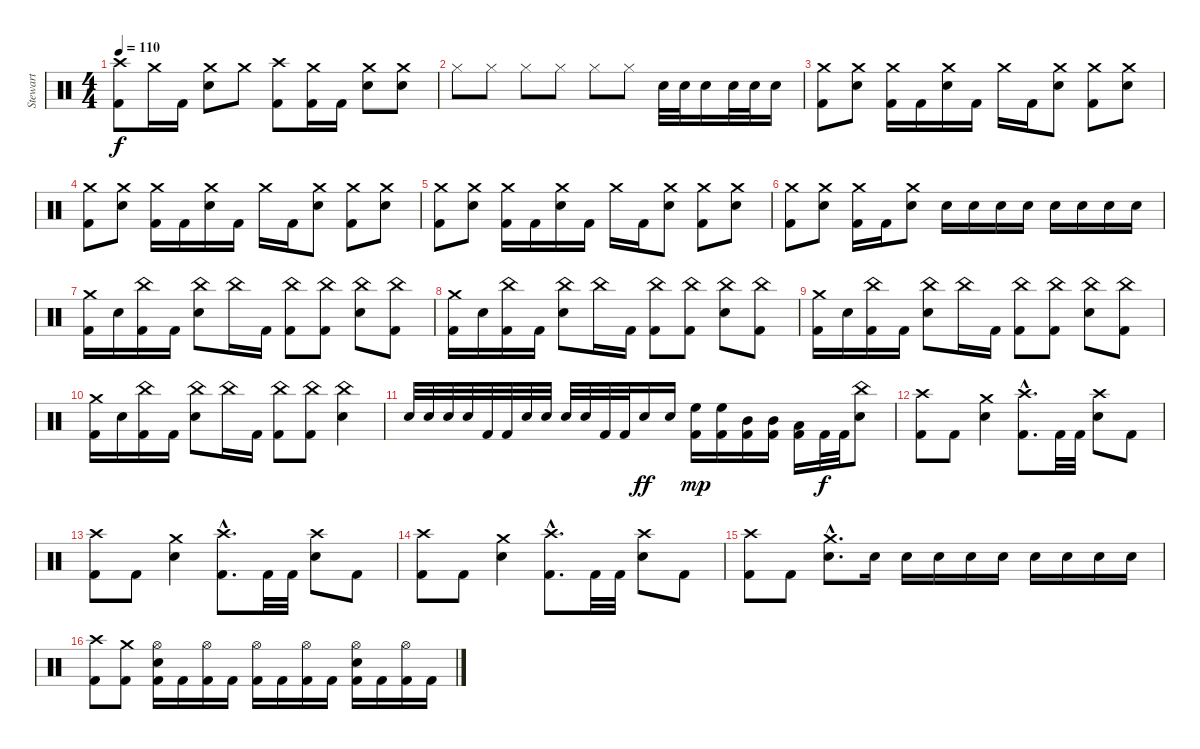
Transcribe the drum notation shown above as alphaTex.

\track ("Stewart" "Stewart") {instrument percussion}
\staff {score}
\articulation defaults
\ts (4 4)
\tempo 110
\clef neutral
\ks c
("Crash high (hit)" "Kick (hit) 2").8{dy f} "Crash medium (hit)".16 "Kick (hit) 2".16 ("Crash medium (hit)" "Electric Snare (hit)").8 "Crash medium (hit)".8 ("Crash high (hit)" "Kick (hit) 2").8 ("Crash medium (hit)" "Kick (hit) 2").16 "Kick (hit) 2".16 ("Crash medium (hit)" "Electric Snare (hit)").8 ("Crash medium (hit)" "Electric Snare (hit)").8 |
"Hi-Hat (closed)".8 "Hi-Hat (closed)".8 "Hi-Hat (closed)".8 "Hi-Hat (closed)".8 "Hi-Hat (closed)".8 "Hi-Hat (closed)".8 "Electric Snare (hit)".32 "Electric Snare (hit)".32 "Electric Snare (hit)".16 "Electric Snare (hit)".32 "Electric Snare (hit)".32 "Electric Snare (hit)".16 |
("Crash medium (hit)" "Kick (hit) 2").8 ("Crash medium (hit)" "Electric Snare (hit)").8 ("Crash medium (hit)" "Kick (hit) 2").16 "Kick (hit) 2".16 ("Crash medium (hit)" "Electric Snare (hit)").16 "Kick (hit) 2".16 "Crash medium (hit)".16 "Kick (hit) 2".16 ("Crash medium (hit)" "Electric Snare (hit)").8 ("Crash medium (hit)" "Kick (hit) 2").8 ("Crash medium (hit)" "Electric Snare (hit)").8 |
("Crash medium (hit)" "Kick (hit) 2").8 ("Crash medium (hit)" "Electric Snare (hit)").8 ("Crash medium (hit)" "Kick (hit) 2").16 "Kick (hit) 2".16 ("Crash medium (hit)" "Electric Snare (hit)").16 "Kick (hit) 2".16 "Crash medium (hit)".16 "Kick (hit) 2".16 ("Crash medium (hit)" "Electric Snare (hit)").8 ("Crash medium (hit)" "Kick (hit) 2").8 ("Crash medium (hit)" "Electric Snare (hit)").8 |
("Crash medium (hit)" "Kick (hit) 2").8 ("Crash medium (hit)" "Electric Snare (hit)").8 ("Crash medium (hit)" "Kick (hit) 2").16 "Kick (hit) 2".16 ("Crash medium (hit)" "Electric Snare (hit)").16 "Kick (hit) 2".16 "Crash medium (hit)".16 "Kick (hit) 2".16 ("Crash medium (hit)" "Electric Snare (hit)").8 ("Crash medium (hit)" "Kick (hit) 2").8 ("Crash medium (hit)" "Electric Snare (hit)").8 |
("Crash medium (hit)" "Kick (hit) 2").8 ("Crash medium (hit)" "Electric Snare (hit)").8 ("Crash medium (hit)" "Kick (hit) 2").16 "Kick (hit) 2".16 ("Crash medium (hit)" "Electric Snare (hit)").8 "Electric Snare (hit)".16 "Electric Snare (hit)".16 "Electric Snare (hit)".16 "Electric Snare (hit)".16 "Electric Snare (hit)".16 "Electric Snare (hit)".16 "Electric Snare (hit)".16 "Electric Snare (hit)".16 |
("Crash medium (hit)" "Kick (hit) 2").16 "Electric Snare (hit)".16 ("China (hit)" "Kick (hit) 2").16 "Kick (hit) 2".16 ("China (hit)" "Electric Snare (hit)").8 "China (hit)".16 "Kick (hit) 2".16 ("China (hit)" "Kick (hit) 2").8 ("China (hit)" "Kick (hit) 2").8 ("China (hit)" "Electric Snare (hit)").8 ("China (hit)" "Kick (hit) 2").8 |
("Crash medium (hit)" "Kick (hit) 2").16 "Electric Snare (hit)".16 ("China (hit)" "Kick (hit) 2").16 "Kick (hit) 2".16 ("China (hit)" "Electric Snare (hit)").8 "China (hit)".16 "Kick (hit) 2".16 ("China (hit)" "Kick (hit) 2").8 ("China (hit)" "Kick (hit) 2").8 ("China (hit)" "Electric Snare (hit)").8 ("China (hit)" "Kick (hit) 2").8 |
("Crash medium (hit)" "Kick (hit) 2").16 "Electric Snare (hit)".16 ("China (hit)" "Kick (hit) 2").16 "Kick (hit) 2".16 ("China (hit)" "Electric Snare (hit)").8 "China (hit)".16 "Kick (hit) 2".16 ("China (hit)" "Kick (hit) 2").8 ("China (hit)" "Kick (hit) 2").8 ("China (hit)" "Electric Snare (hit)").8 ("China (hit)" "Kick (hit) 2").8 |
("Crash medium (hit)" "Kick (hit) 2").16 "Electric Snare (hit)".16 ("China (hit)" "Kick (hit) 2").16 "Kick (hit) 2".16 ("China (hit)" "Electric Snare (hit)").8 "China (hit)".16 "Kick (hit) 2".16 ("China (hit)" "Kick (hit) 2").8 ("China (hit)" "Kick (hit) 2").8 ("China (hit)" "Electric Snare (hit)").4 |
"Snare (hit) 2".32 "Snare (hit) 2".32 "Snare (hit) 2".32 "Snare (hit) 2".32 "Kick (hit) 2".32 "Kick (hit) 2".32 "Snare (hit) 2".32 "Snare (hit) 2".32 "Snare (hit) 2".32 "Snare (hit) 2".32 "Kick (hit) 2".32 "Kick (hit) 2".32 "Snare (hit) 2".16{dy ff} "Snare (hit) 2".16 ("High Floor Tom (hit)" "Kick (hit) 2").16{dy mp} ("High Floor Tom (hit)" "Kick (hit) 2").16 ("Mid Tom (hit)" "Kick (hit) 2").16 ("Mid Tom (hit)" "Kick (hit) 2").16 ("Low Tom (hit)" "Kick (hit) 2").16 "Kick (hit) 2".32{dy f} "Kick (hit) 2".32 ("Snare (hit) 2" "China (hit)").8 |
("Kick (hit) 2" "Crash high (hit)").8 "Kick (hit) 2".8 ("Snare (hit) 2" "Crash medium (hit)").4 ("Kick (hit) 2"{hac} "Crash high (hit)"{hac}).8{d} "Kick (hit) 2".32 "Kick (hit) 2".32 ("Snare (hit) 2" "Crash high (hit)").8 "Kick (hit) 2".8 |
("Kick (hit) 2" "Crash high (hit)").8 "Kick (hit) 2".8 ("Snare (hit) 2" "Crash medium (hit)").4 ("Kick (hit) 2"{hac} "Crash high (hit)"{hac}).8{d} "Kick (hit) 2".32 "Kick (hit) 2".32 ("Snare (hit) 2" "Crash high (hit)").8 "Kick (hit) 2".8 |
("Kick (hit) 2" "Crash high (hit)").8 "Kick (hit) 2".8 ("Snare (hit) 2" "Crash medium (hit)").4 ("Kick (hit) 2"{hac} "Crash high (hit)"{hac}).8{d} "Kick (hit) 2".32 "Kick (hit) 2".32 ("Snare (hit) 2" "Crash high (hit)").8 "Kick (hit) 2".8 |
("Kick (hit) 2" "Crash high (hit)").8 "Kick (hit) 2".8 ("Snare (hit) 2"{hac} "Crash medium (hit)"{hac}).8{d} "Snare (hit) 2".16 "Snare (hit) 2".16 "Snare (hit) 2".16 "Snare (hit) 2".16 "Snare (hit) 2".16 "Snare (hit) 2".16 "Snare (hit) 2".16 "Snare (hit) 2".16 "Snare (hit) 2".16 |
("Kick (hit) 2" "Crash high (hit)").8 ("Kick (hit) 2" "Crash medium (hit)").8 ("Kick (hit) 2" "Snare (hit) 2" "Hi-Hat (open)").16 "Kick (hit) 2".16 ("Kick (hit) 2" "Hi-Hat (open)").16 "Kick (hit) 2".16 ("Kick (hit) 2" "Hi-Hat (open)").16 "Kick (hit) 2".16 ("Kick (hit) 2" "Hi-Hat (open)").16 "Kick (hit) 2".16 ("Kick (hit) 2" "Snare (hit) 2" "Hi-Hat (open)").16 "Kick (hit) 2".16 ("Kick (hit) 2" "Hi-Hat (open)").16 "Kick (hit) 2".16
